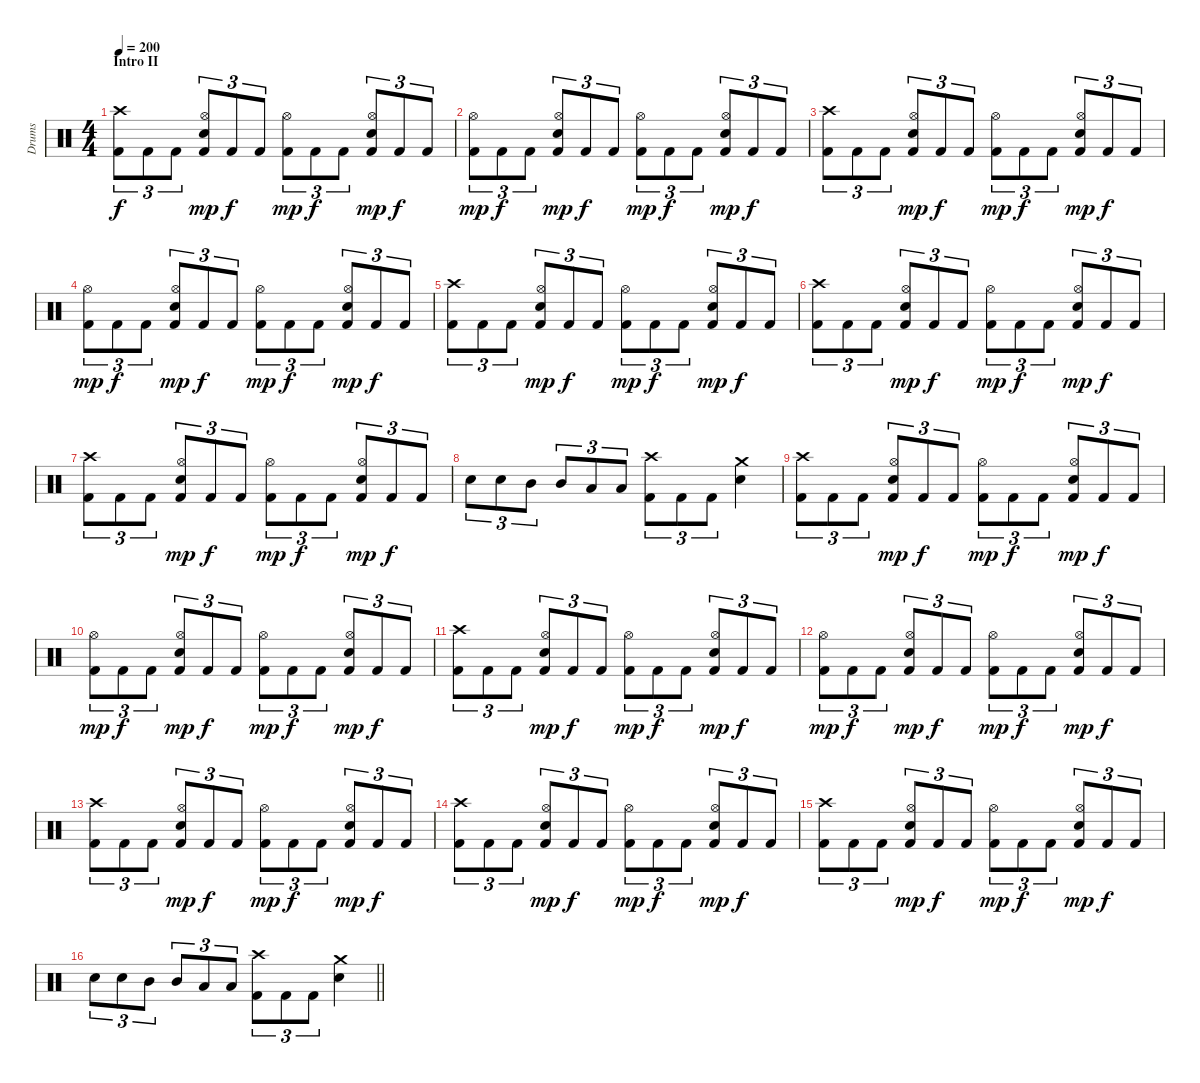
\track ("Drums" "Drums") {instrument percussion}
\staff {score}
\articulation defaults
\ts (4 4)
\section ("" "Intro II")
\tempo 200
\clef neutral
\ks c
("Crash high (hit)" "Kick (hit) 2").8{tu (3 2) dy f} "Kick (hit) 2".8{tu (3 2)} "Kick (hit) 2".8{tu (3 2)} ("Hi-Hat (open)" "Snare (hit) 2" "Kick (hit) 2").8{tu (3 2) dy mp} "Kick (hit) 2".8{tu (3 2) dy f} "Kick (hit) 2".8{tu (3 2)} ("Hi-Hat (open)" "Kick (hit) 2").8{tu (3 2) dy mp} "Kick (hit) 2".8{tu (3 2) dy f} "Kick (hit) 2".8{tu (3 2)} ("Hi-Hat (open)" "Snare (hit) 2" "Kick (hit) 2").8{tu (3 2) dy mp} "Kick (hit) 2".8{tu (3 2) dy f} "Kick (hit) 2".8{tu (3 2)} |
("Hi-Hat (open)" "Kick (hit) 2").8{tu (3 2) dy mp} "Kick (hit) 2".8{tu (3 2) dy f} "Kick (hit) 2".8{tu (3 2)} ("Hi-Hat (open)" "Snare (hit) 2" "Kick (hit) 2").8{tu (3 2) dy mp} "Kick (hit) 2".8{tu (3 2) dy f} "Kick (hit) 2".8{tu (3 2)} ("Hi-Hat (open)" "Kick (hit) 2").8{tu (3 2) dy mp} "Kick (hit) 2".8{tu (3 2) dy f} "Kick (hit) 2".8{tu (3 2)} ("Hi-Hat (open)" "Snare (hit) 2" "Kick (hit) 2").8{tu (3 2) dy mp} "Kick (hit) 2".8{tu (3 2) dy f} "Kick (hit) 2".8{tu (3 2)} |
("Crash high (hit)" "Kick (hit) 2").8{tu (3 2)} "Kick (hit) 2".8{tu (3 2)} "Kick (hit) 2".8{tu (3 2)} ("Hi-Hat (open)" "Snare (hit) 2" "Kick (hit) 2").8{tu (3 2) dy mp} "Kick (hit) 2".8{tu (3 2) dy f} "Kick (hit) 2".8{tu (3 2)} ("Hi-Hat (open)" "Kick (hit) 2").8{tu (3 2) dy mp} "Kick (hit) 2".8{tu (3 2) dy f} "Kick (hit) 2".8{tu (3 2)} ("Hi-Hat (open)" "Snare (hit) 2" "Kick (hit) 2").8{tu (3 2) dy mp} "Kick (hit) 2".8{tu (3 2) dy f} "Kick (hit) 2".8{tu (3 2)} |
("Hi-Hat (open)" "Kick (hit) 2").8{tu (3 2) dy mp} "Kick (hit) 2".8{tu (3 2) dy f} "Kick (hit) 2".8{tu (3 2)} ("Hi-Hat (open)" "Snare (hit) 2" "Kick (hit) 2").8{tu (3 2) dy mp} "Kick (hit) 2".8{tu (3 2) dy f} "Kick (hit) 2".8{tu (3 2)} ("Hi-Hat (open)" "Kick (hit) 2").8{tu (3 2) dy mp} "Kick (hit) 2".8{tu (3 2) dy f} "Kick (hit) 2".8{tu (3 2)} ("Hi-Hat (open)" "Snare (hit) 2" "Kick (hit) 2").8{tu (3 2) dy mp} "Kick (hit) 2".8{tu (3 2) dy f} "Kick (hit) 2".8{tu (3 2)} |
("Crash high (hit)" "Kick (hit) 2").8{tu (3 2)} "Kick (hit) 2".8{tu (3 2)} "Kick (hit) 2".8{tu (3 2)} ("Hi-Hat (open)" "Snare (hit) 2" "Kick (hit) 2").8{tu (3 2) dy mp} "Kick (hit) 2".8{tu (3 2) dy f} "Kick (hit) 2".8{tu (3 2)} ("Hi-Hat (open)" "Kick (hit) 2").8{tu (3 2) dy mp} "Kick (hit) 2".8{tu (3 2) dy f} "Kick (hit) 2".8{tu (3 2)} ("Hi-Hat (open)" "Snare (hit) 2" "Kick (hit) 2").8{tu (3 2) dy mp} "Kick (hit) 2".8{tu (3 2) dy f} "Kick (hit) 2".8{tu (3 2)} |
("Crash high (hit)" "Kick (hit) 2").8{tu (3 2)} "Kick (hit) 2".8{tu (3 2)} "Kick (hit) 2".8{tu (3 2)} ("Hi-Hat (open)" "Snare (hit) 2" "Kick (hit) 2").8{tu (3 2) dy mp} "Kick (hit) 2".8{tu (3 2) dy f} "Kick (hit) 2".8{tu (3 2)} ("Hi-Hat (open)" "Kick (hit) 2").8{tu (3 2) dy mp} "Kick (hit) 2".8{tu (3 2) dy f} "Kick (hit) 2".8{tu (3 2)} ("Hi-Hat (open)" "Snare (hit) 2" "Kick (hit) 2").8{tu (3 2) dy mp} "Kick (hit) 2".8{tu (3 2) dy f} "Kick (hit) 2".8{tu (3 2)} |
("Crash high (hit)" "Kick (hit) 2").8{tu (3 2)} "Kick (hit) 2".8{tu (3 2)} "Kick (hit) 2".8{tu (3 2)} ("Hi-Hat (open)" "Snare (hit) 2" "Kick (hit) 2").8{tu (3 2) dy mp} "Kick (hit) 2".8{tu (3 2) dy f} "Kick (hit) 2".8{tu (3 2)} ("Hi-Hat (open)" "Kick (hit) 2").8{tu (3 2) dy mp} "Kick (hit) 2".8{tu (3 2) dy f} "Kick (hit) 2".8{tu (3 2)} ("Hi-Hat (open)" "Snare (hit) 2" "Kick (hit) 2").8{tu (3 2) dy mp} "Kick (hit) 2".8{tu (3 2) dy f} "Kick (hit) 2".8{tu (3 2)} |
"Snare (hit) 2".8{tu (3 2)} "Snare (hit) 2".8{tu (3 2)} "Mid Tom (hit)".8{tu (3 2)} "Mid Tom (hit)".8{tu (3 2)} "Low Tom (hit)".8{tu (3 2)} "Low Tom (hit)".8{tu (3 2)} ("Crash high (hit)" "Kick (hit) 2").8{tu (3 2)} "Kick (hit) 2".8{tu (3 2)} "Kick (hit) 2".8{tu (3 2)} ("Crash medium (hit)" "Snare (hit) 2").4 |
("Crash high (hit)" "Kick (hit) 2").8{tu (3 2)} "Kick (hit) 2".8{tu (3 2)} "Kick (hit) 2".8{tu (3 2)} ("Hi-Hat (open)" "Snare (hit) 2" "Kick (hit) 2").8{tu (3 2) dy mp} "Kick (hit) 2".8{tu (3 2) dy f} "Kick (hit) 2".8{tu (3 2)} ("Hi-Hat (open)" "Kick (hit) 2").8{tu (3 2) dy mp} "Kick (hit) 2".8{tu (3 2) dy f} "Kick (hit) 2".8{tu (3 2)} ("Hi-Hat (open)" "Snare (hit) 2" "Kick (hit) 2").8{tu (3 2) dy mp} "Kick (hit) 2".8{tu (3 2) dy f} "Kick (hit) 2".8{tu (3 2)} |
("Hi-Hat (open)" "Kick (hit) 2").8{tu (3 2) dy mp} "Kick (hit) 2".8{tu (3 2) dy f} "Kick (hit) 2".8{tu (3 2)} ("Hi-Hat (open)" "Snare (hit) 2" "Kick (hit) 2").8{tu (3 2) dy mp} "Kick (hit) 2".8{tu (3 2) dy f} "Kick (hit) 2".8{tu (3 2)} ("Hi-Hat (open)" "Kick (hit) 2").8{tu (3 2) dy mp} "Kick (hit) 2".8{tu (3 2) dy f} "Kick (hit) 2".8{tu (3 2)} ("Hi-Hat (open)" "Snare (hit) 2" "Kick (hit) 2").8{tu (3 2) dy mp} "Kick (hit) 2".8{tu (3 2) dy f} "Kick (hit) 2".8{tu (3 2)} |
("Crash high (hit)" "Kick (hit) 2").8{tu (3 2)} "Kick (hit) 2".8{tu (3 2)} "Kick (hit) 2".8{tu (3 2)} ("Hi-Hat (open)" "Snare (hit) 2" "Kick (hit) 2").8{tu (3 2) dy mp} "Kick (hit) 2".8{tu (3 2) dy f} "Kick (hit) 2".8{tu (3 2)} ("Hi-Hat (open)" "Kick (hit) 2").8{tu (3 2) dy mp} "Kick (hit) 2".8{tu (3 2) dy f} "Kick (hit) 2".8{tu (3 2)} ("Hi-Hat (open)" "Snare (hit) 2" "Kick (hit) 2").8{tu (3 2) dy mp} "Kick (hit) 2".8{tu (3 2) dy f} "Kick (hit) 2".8{tu (3 2)} |
("Hi-Hat (open)" "Kick (hit) 2").8{tu (3 2) dy mp} "Kick (hit) 2".8{tu (3 2) dy f} "Kick (hit) 2".8{tu (3 2)} ("Hi-Hat (open)" "Snare (hit) 2" "Kick (hit) 2").8{tu (3 2) dy mp} "Kick (hit) 2".8{tu (3 2) dy f} "Kick (hit) 2".8{tu (3 2)} ("Hi-Hat (open)" "Kick (hit) 2").8{tu (3 2) dy mp} "Kick (hit) 2".8{tu (3 2) dy f} "Kick (hit) 2".8{tu (3 2)} ("Hi-Hat (open)" "Snare (hit) 2" "Kick (hit) 2").8{tu (3 2) dy mp} "Kick (hit) 2".8{tu (3 2) dy f} "Kick (hit) 2".8{tu (3 2)} |
("Crash high (hit)" "Kick (hit) 2").8{tu (3 2)} "Kick (hit) 2".8{tu (3 2)} "Kick (hit) 2".8{tu (3 2)} ("Hi-Hat (open)" "Snare (hit) 2" "Kick (hit) 2").8{tu (3 2) dy mp} "Kick (hit) 2".8{tu (3 2) dy f} "Kick (hit) 2".8{tu (3 2)} ("Hi-Hat (open)" "Kick (hit) 2").8{tu (3 2) dy mp} "Kick (hit) 2".8{tu (3 2) dy f} "Kick (hit) 2".8{tu (3 2)} ("Hi-Hat (open)" "Snare (hit) 2" "Kick (hit) 2").8{tu (3 2) dy mp} "Kick (hit) 2".8{tu (3 2) dy f} "Kick (hit) 2".8{tu (3 2)} |
("Crash high (hit)" "Kick (hit) 2").8{tu (3 2)} "Kick (hit) 2".8{tu (3 2)} "Kick (hit) 2".8{tu (3 2)} ("Hi-Hat (open)" "Snare (hit) 2" "Kick (hit) 2").8{tu (3 2) dy mp} "Kick (hit) 2".8{tu (3 2) dy f} "Kick (hit) 2".8{tu (3 2)} ("Hi-Hat (open)" "Kick (hit) 2").8{tu (3 2) dy mp} "Kick (hit) 2".8{tu (3 2) dy f} "Kick (hit) 2".8{tu (3 2)} ("Hi-Hat (open)" "Snare (hit) 2" "Kick (hit) 2").8{tu (3 2) dy mp} "Kick (hit) 2".8{tu (3 2) dy f} "Kick (hit) 2".8{tu (3 2)} |
("Crash high (hit)" "Kick (hit) 2").8{tu (3 2)} "Kick (hit) 2".8{tu (3 2)} "Kick (hit) 2".8{tu (3 2)} ("Hi-Hat (open)" "Snare (hit) 2" "Kick (hit) 2").8{tu (3 2) dy mp} "Kick (hit) 2".8{tu (3 2) dy f} "Kick (hit) 2".8{tu (3 2)} ("Hi-Hat (open)" "Kick (hit) 2").8{tu (3 2) dy mp} "Kick (hit) 2".8{tu (3 2) dy f} "Kick (hit) 2".8{tu (3 2)} ("Hi-Hat (open)" "Snare (hit) 2" "Kick (hit) 2").8{tu (3 2) dy mp} "Kick (hit) 2".8{tu (3 2) dy f} "Kick (hit) 2".8{tu (3 2)} |
\barLineRight lightlight "Snare (hit) 2".8{tu (3 2)} "Snare (hit) 2".8{tu (3 2)} "Mid Tom (hit)".8{tu (3 2)} "Mid Tom (hit)".8{tu (3 2)} "Low Tom (hit)".8{tu (3 2)} "Low Tom (hit)".8{tu (3 2)}
("Crash high (hit)" "Kick (hit) 2").8{tu (3 2)} "Kick (hit) 2".8{tu (3 2)} "Kick (hit) 2".8{tu (3 2)} ("Crash medium (hit)" "Snare (hit) 2").4
